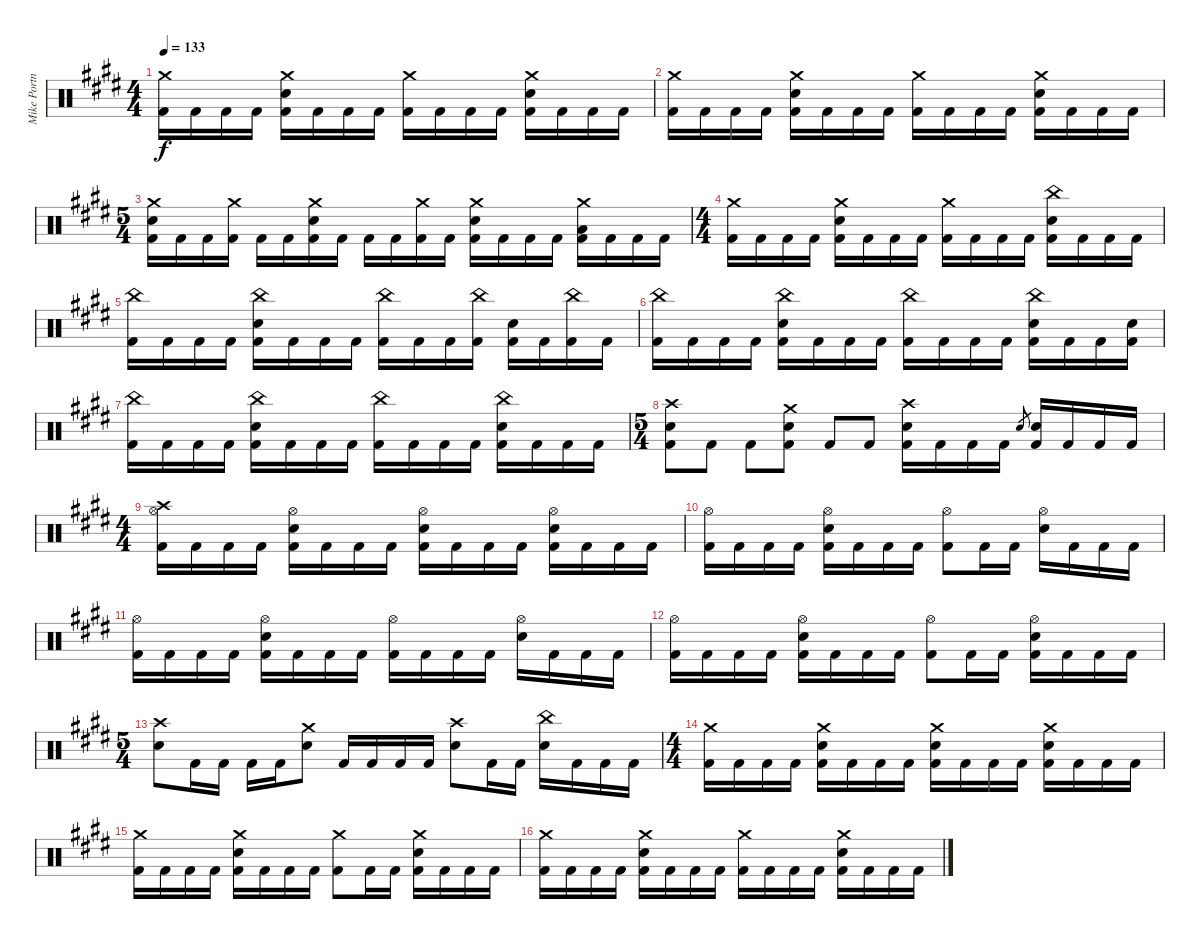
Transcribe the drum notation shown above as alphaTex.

\track ("Mike Portnoy" "Mike Portn") {instrument percussion}
\staff {score}
\articulation defaults
\ts (4 4)
\tempo 133
\clef neutral
\ks e
("Crash medium (hit)" "Kick (hit) 2").16{dy f} "Kick (hit) 2".16 "Kick (hit) 2".16 "Kick (hit) 2".16 ("Crash medium (hit)" "Snare (hit) 2" "Kick (hit) 2").16 "Kick (hit) 2".16 "Kick (hit) 2".16 "Kick (hit) 2".16 ("Crash medium (hit)" "Kick (hit) 2").16 "Kick (hit) 2".16 "Kick (hit) 2".16 "Kick (hit) 2".16 ("Crash medium (hit)" "Snare (hit) 2" "Kick (hit) 2").16 "Kick (hit) 2".16 "Kick (hit) 2".16 "Kick (hit) 2".16 |
("Crash medium (hit)" "Kick (hit) 2").16 "Kick (hit) 2".16 "Kick (hit) 2".16 "Kick (hit) 2".16 ("Crash medium (hit)" "Snare (hit) 2" "Kick (hit) 2").16 "Kick (hit) 2".16 "Kick (hit) 2".16 "Kick (hit) 2".16 ("Crash medium (hit)" "Kick (hit) 2").16 "Kick (hit) 2".16 "Kick (hit) 2".16 "Kick (hit) 2".16 ("Crash medium (hit)" "Snare (hit) 2" "Kick (hit) 2").16 "Kick (hit) 2".16 "Kick (hit) 2".16 "Kick (hit) 2".16 |
\ts (5 4)
("Crash medium (hit)" "Snare (hit) 2" "Kick (hit) 2").16{volume 7} "Kick (hit) 2".16 "Kick (hit) 2".16 ("Crash medium (hit)" "Kick (hit) 2").16 "Kick (hit) 2".16 "Kick (hit) 2".16 ("Crash medium (hit)" "Snare (hit) 2" "Kick (hit) 2").16 "Kick (hit) 2".16 "Kick (hit) 2".16 "Kick (hit) 2".16 ("Crash medium (hit)" "Kick (hit) 2").16 "Kick (hit) 2".16 ("Crash medium (hit)" "Snare (hit) 2" "Kick (hit) 2").16 "Kick (hit) 2".16 "Kick (hit) 2".16 "Kick (hit) 2".16 ("Crash medium (hit)" "Low Tom (hit)" "Kick (hit) 2").16 "Kick (hit) 2".16 "Kick (hit) 2".16 "Kick (hit) 2".16 |
\ts (4 4)
("Crash medium (hit)" "Kick (hit) 2").16 "Kick (hit) 2".16 "Kick (hit) 2".16 "Kick (hit) 2".16 ("Crash medium (hit)" "Snare (hit) 2" "Kick (hit) 2").16 "Kick (hit) 2".16 "Kick (hit) 2".16 "Kick (hit) 2".16 ("Crash medium (hit)" "Kick (hit) 2").16 "Kick (hit) 2".16 "Kick (hit) 2".16 "Kick (hit) 2".16 ("China (hit)" "Snare (hit) 2" "Kick (hit) 2").16 "Kick (hit) 2".16 "Kick (hit) 2".16 "Kick (hit) 2".16 |
("China (hit)" "Kick (hit) 2").16 "Kick (hit) 2".16 "Kick (hit) 2".16 "Kick (hit) 2".16 ("China (hit)" "Snare (hit) 2" "Kick (hit) 2").16 "Kick (hit) 2".16 "Kick (hit) 2".16 "Kick (hit) 2".16 ("China (hit)" "Kick (hit) 2").16 "Kick (hit) 2".16 "Kick (hit) 2".16 ("China (hit)" "Kick (hit) 2").16 ("Snare (hit) 2" "Kick (hit) 2").16 "Kick (hit) 2".16 ("China (hit)" "Kick (hit) 2").16 "Kick (hit) 2".16 |
("China (hit)" "Kick (hit) 2").16 "Kick (hit) 2".16 "Kick (hit) 2".16 "Kick (hit) 2".16 ("China (hit)" "Snare (hit) 2" "Kick (hit) 2").16 "Kick (hit) 2".16 "Kick (hit) 2".16 "Kick (hit) 2".16 ("China (hit)" "Kick (hit) 2").16 "Kick (hit) 2".16 "Kick (hit) 2".16 "Kick (hit) 2".16 ("China (hit)" "Snare (hit) 2" "Kick (hit) 2").16 "Kick (hit) 2".16 "Kick (hit) 2".16 ("Snare (hit) 2" "Kick (hit) 2").16 |
("China (hit)" "Kick (hit) 2").16 "Kick (hit) 2".16 "Kick (hit) 2".16 "Kick (hit) 2".16 ("China (hit)" "Snare (hit) 2" "Kick (hit) 2").16 "Kick (hit) 2".16 "Kick (hit) 2".16 "Kick (hit) 2".16 ("China (hit)" "Kick (hit) 2").16 "Kick (hit) 2".16 "Kick (hit) 2".16 "Kick (hit) 2".16 ("China (hit)" "Snare (hit) 2" "Kick (hit) 2").16 "Kick (hit) 2".16 "Kick (hit) 2".16 "Kick (hit) 2".16 |
\ts (5 4)
("Crash high (hit)" "Snare (hit) 2" "Kick (hit) 2").8 "Kick (hit) 2".8 "Kick (hit) 2".8 ("Crash medium (hit)" "Snare (hit) 2" "Kick (hit) 2").8 "Kick (hit) 2".8 "Kick (hit) 2".8 ("Crash high (hit)" "Snare (hit) 2" "Kick (hit) 2").16 "Kick (hit) 2".16 "Kick (hit) 2".16 "Kick (hit) 2".16 "Snare (hit) 2".8{gr} ("Snare (hit) 2" "Kick (hit) 2").16 "Kick (hit) 2".16 "Kick (hit) 2".16 "Kick (hit) 2".16 |
\ts (4 4)
("Hi-Hat (open)" "Crash high (hit)" "Kick (hit) 2").16 "Kick (hit) 2".16 "Kick (hit) 2".16 "Kick (hit) 2".16 ("Hi-Hat (open)" "Snare (hit) 2" "Kick (hit) 2").16 "Kick (hit) 2".16 "Kick (hit) 2".16 "Kick (hit) 2".16 ("Hi-Hat (open)" "Snare (hit) 2" "Kick (hit) 2").16 "Kick (hit) 2".16 "Kick (hit) 2".16 "Kick (hit) 2".16 ("Hi-Hat (open)" "Snare (hit) 2" "Kick (hit) 2").16 "Kick (hit) 2".16 "Kick (hit) 2".16 "Kick (hit) 2".16 |
("Hi-Hat (open)" "Kick (hit) 2").16 "Kick (hit) 2".16 "Kick (hit) 2".16 "Kick (hit) 2".16 ("Hi-Hat (open)" "Snare (hit) 2" "Kick (hit) 2").16 "Kick (hit) 2".16 "Kick (hit) 2".16 "Kick (hit) 2".16 ("Hi-Hat (open)" "Kick (hit) 2").8 "Kick (hit) 2".16 "Kick (hit) 2".16 ("Hi-Hat (open)" "Snare (hit) 2").16 "Kick (hit) 2".16 "Kick (hit) 2".16 "Kick (hit) 2".16 |
("Hi-Hat (open)" "Kick (hit) 2").16{volume 3} "Kick (hit) 2".16 "Kick (hit) 2".16 "Kick (hit) 2".16 ("Hi-Hat (open)" "Snare (hit) 2" "Kick (hit) 2").16 "Kick (hit) 2".16 "Kick (hit) 2".16 "Kick (hit) 2".16 ("Hi-Hat (open)" "Kick (hit) 2").16 "Kick (hit) 2".16 "Kick (hit) 2".16 "Kick (hit) 2".16 ("Hi-Hat (open)" "Snare (hit) 2").16 "Kick (hit) 2".16 "Kick (hit) 2".16 "Kick (hit) 2".16 |
("Hi-Hat (open)" "Kick (hit) 2").16 "Kick (hit) 2".16 "Kick (hit) 2".16 "Kick (hit) 2".16 ("Hi-Hat (open)" "Snare (hit) 2" "Kick (hit) 2").16 "Kick (hit) 2".16 "Kick (hit) 2".16 "Kick (hit) 2".16 ("Hi-Hat (open)" "Kick (hit) 2").8 "Kick (hit) 2".16 "Kick (hit) 2".16 ("Hi-Hat (open)" "Snare (hit) 2" "Kick (hit) 2").16 "Kick (hit) 2".16 "Kick (hit) 2".16 "Kick (hit) 2".16 |
\ts (5 4)
("Crash high (hit)" "Snare (hit) 2").8 "Kick (hit) 2".16 "Kick (hit) 2".16 "Kick (hit) 2".16 "Kick (hit) 2".16 ("Crash medium (hit)" "Snare (hit) 2").8 "Kick (hit) 2".16 "Kick (hit) 2".16 "Kick (hit) 2".16 "Kick (hit) 2".16 ("Crash high (hit)" "Snare (hit) 2").8 "Kick (hit) 2".16 "Kick (hit) 2".16 ("China (hit)" "Snare (hit) 2").16 "Kick (hit) 2".16 "Kick (hit) 2".16 "Kick (hit) 2".16 |
\ts (4 4)
("Crash medium (hit)" "Kick (hit) 2").16 "Kick (hit) 2".16 "Kick (hit) 2".16 "Kick (hit) 2".16 ("Crash medium (hit)" "Snare (hit) 2" "Kick (hit) 2").16 "Kick (hit) 2".16 "Kick (hit) 2".16 "Kick (hit) 2".16 ("Crash medium (hit)" "Snare (hit) 2" "Kick (hit) 2").16 "Kick (hit) 2".16 "Kick (hit) 2".16 "Kick (hit) 2".16 ("Crash medium (hit)" "Snare (hit) 2" "Kick (hit) 2").16 "Kick (hit) 2".16 "Kick (hit) 2".16 "Kick (hit) 2".16 |
("Crash medium (hit)" "Kick (hit) 2").16 "Kick (hit) 2".16 "Kick (hit) 2".16 "Kick (hit) 2".16 ("Crash medium (hit)" "Snare (hit) 2" "Kick (hit) 2").16 "Kick (hit) 2".16 "Kick (hit) 2".16 "Kick (hit) 2".16 ("Crash medium (hit)" "Kick (hit) 2").8 "Kick (hit) 2".16 "Kick (hit) 2".16 ("Crash medium (hit)" "Snare (hit) 2" "Kick (hit) 2").16 "Kick (hit) 2".16 "Kick (hit) 2".16 "Kick (hit) 2".16 |
("Crash medium (hit)" "Kick (hit) 2").16{volume 0} "Kick (hit) 2".16 "Kick (hit) 2".16 "Kick (hit) 2".16 ("Crash medium (hit)" "Snare (hit) 2" "Kick (hit) 2").16 "Kick (hit) 2".16 "Kick (hit) 2".16 "Kick (hit) 2".16 ("Crash medium (hit)" "Kick (hit) 2").16 "Kick (hit) 2".16 "Kick (hit) 2".16 "Kick (hit) 2".16 ("Crash medium (hit)" "Snare (hit) 2" "Kick (hit) 2").16 "Kick (hit) 2".16 "Kick (hit) 2".16 "Kick (hit) 2".16
